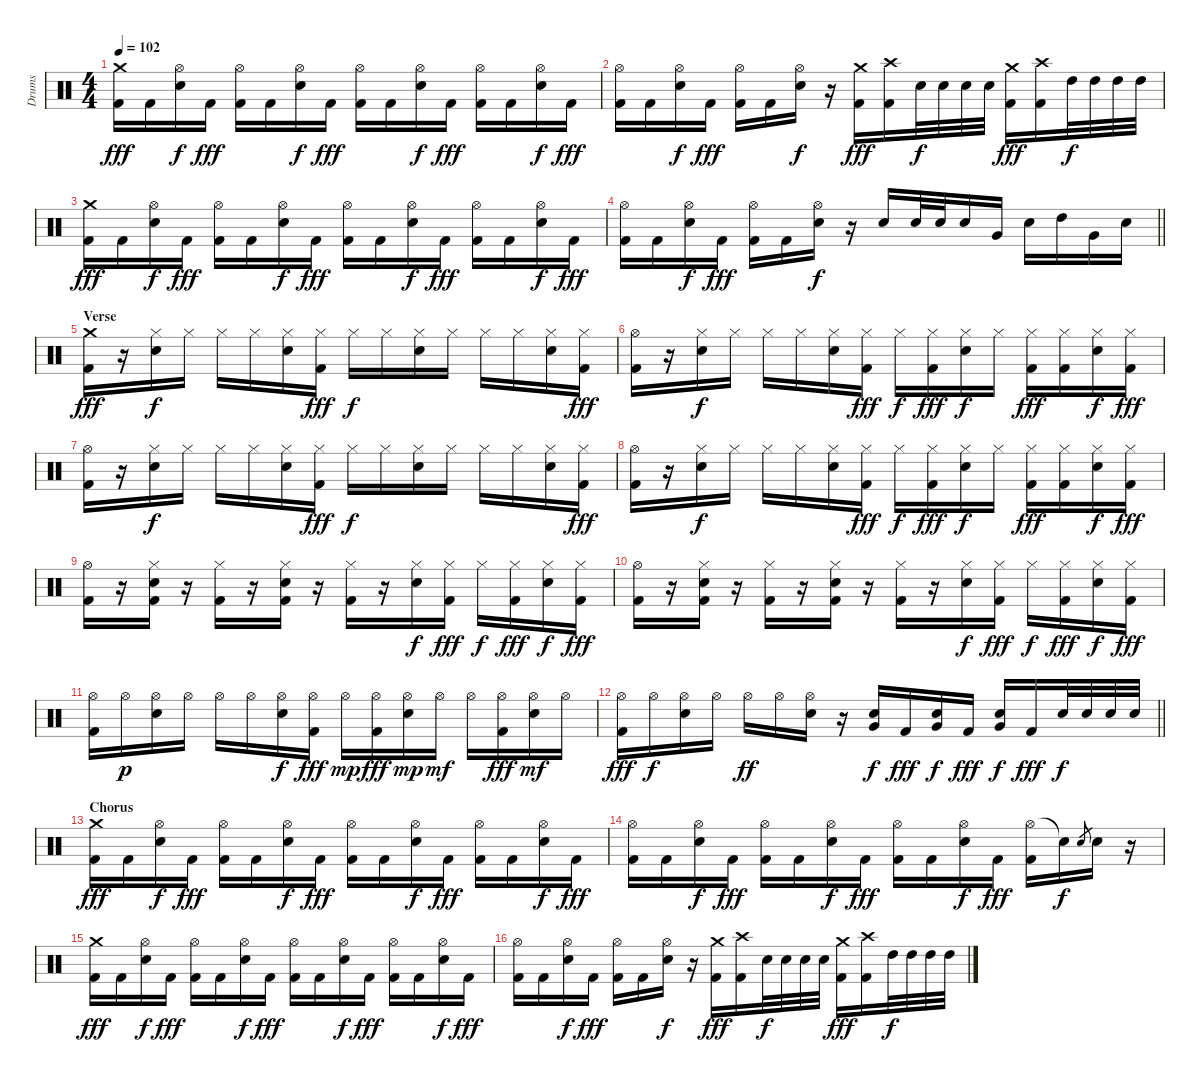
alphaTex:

\track ("Drums" "Drums") {instrument percussion}
\staff {score}
\articulation defaults
\ts (4 4)
\tempo 102
\clef neutral
\ks c
("Crash medium (hit)" "Kick (hit) 2").16{dy fff} "Kick (hit) 2".16 ("Hi-Hat (open)" "Snare (hit) 2").16{dy f} "Kick (hit) 2".16{dy fff} ("Hi-Hat (open)" "Kick (hit) 2").16 "Kick (hit) 2".16 ("Hi-Hat (open)" "Snare (hit) 2").16{dy f} "Kick (hit) 2".16{dy fff} ("Hi-Hat (open)" "Kick (hit) 2").16 "Kick (hit) 2".16 ("Hi-Hat (open)" "Snare (hit) 2").16{dy f} "Kick (hit) 2".16{dy fff} ("Hi-Hat (open)" "Kick (hit) 2").16 "Kick (hit) 2".16 ("Hi-Hat (open)" "Snare (hit) 2").16{dy f} "Kick (hit) 2".16{dy fff} |
("Hi-Hat (open)" "Kick (hit) 2").16 "Kick (hit) 2".16 ("Hi-Hat (open)" "Snare (hit) 2").16{dy f} "Kick (hit) 2".16{dy fff} ("Hi-Hat (open)" "Kick (hit) 2").16 "Kick (hit) 2".16 ("Hi-Hat (open)" "Snare (hit) 2").16{dy f} r.16 ("Crash medium (hit)" "Kick (hit) 2").16{dy fff} ("Crash high (hit)" "Kick (hit) 2").16 "Snare (hit) 2".32{dy f} "Snare (hit) 2".32 "Snare (hit) 2".32 "Snare (hit) 2".32 ("Crash medium (hit)" "Kick (hit) 2").16{dy fff} ("Crash high (hit)" "Kick (hit) 2").16 "High Tom (hit)".32{dy f} "High Tom (hit)".32 "High Tom (hit)".32 "High Tom (hit)".32 |
("Crash medium (hit)" "Kick (hit) 2").16{dy fff} "Kick (hit) 2".16 ("Hi-Hat (open)" "Snare (hit) 2").16{dy f} "Kick (hit) 2".16{dy fff} ("Hi-Hat (open)" "Kick (hit) 2").16 "Kick (hit) 2".16 ("Hi-Hat (open)" "Snare (hit) 2").16{dy f} "Kick (hit) 2".16{dy fff} ("Hi-Hat (open)" "Kick (hit) 2").16 "Kick (hit) 2".16 ("Hi-Hat (open)" "Snare (hit) 2").16{dy f} "Kick (hit) 2".16{dy fff} ("Hi-Hat (open)" "Kick (hit) 2").16 "Kick (hit) 2".16 ("Hi-Hat (open)" "Snare (hit) 2").16{dy f} "Kick (hit) 2".16{dy fff} |
\barLineRight lightlight
("Hi-Hat (open)" "Kick (hit) 2").16 "Kick (hit) 2".16 ("Hi-Hat (open)" "Snare (hit) 2").16{dy f} "Kick (hit) 2".16{dy fff} ("Hi-Hat (open)" "Kick (hit) 2").16 "Kick (hit) 2".16 ("Hi-Hat (open)" "Snare (hit) 2").16{dy f} r.16 "Snare (hit) 2".16 "Snare (hit) 2".32 "Snare (hit) 2".32 "Snare (hit) 2".16 "Very Low Tom (hit)".16 "Snare (hit) 2".16 "High Tom (hit)".16 "Very Low Tom (hit)".16 "Snare (hit) 2".16 |
\section ("" "Verse")
("Crash medium (hit)" "Kick (hit) 2").16{dy fff} r.16 ("Hi-Hat (closed)" "Snare (hit) 2").16{dy f} "Hi-Hat (closed)".16 "Hi-Hat (closed)".16 "Hi-Hat (closed)".16 ("Hi-Hat (closed)" "Snare (hit) 2").16 ("Hi-Hat (closed)" "Kick (hit) 2").16{dy fff} "Hi-Hat (closed)".16{dy f} "Hi-Hat (closed)".16 ("Hi-Hat (closed)" "Snare (hit) 2").16 "Hi-Hat (closed)".16 "Hi-Hat (closed)".16 "Hi-Hat (closed)".16 ("Hi-Hat (closed)" "Snare (hit) 2").16 ("Hi-Hat (closed)" "Kick (hit) 2").16{dy fff} |
("Hi-Hat (open)" "Kick (hit) 2").16 r.16 ("Hi-Hat (closed)" "Snare (hit) 2").16{dy f} "Hi-Hat (closed)".16 "Hi-Hat (closed)".16 "Hi-Hat (closed)".16 ("Hi-Hat (closed)" "Snare (hit) 2").16 ("Hi-Hat (closed)" "Kick (hit) 2").16{dy fff} "Hi-Hat (closed)".16{dy f} ("Hi-Hat (closed)" "Kick (hit) 2").16{dy fff} ("Hi-Hat (closed)" "Snare (hit) 2").16{dy f} "Hi-Hat (closed)".16 ("Hi-Hat (closed)" "Kick (hit) 2").16{dy fff} ("Hi-Hat (closed)" "Kick (hit) 2").16 ("Hi-Hat (closed)" "Snare (hit) 2").16{dy f} ("Hi-Hat (closed)" "Kick (hit) 2").16{dy fff} |
("Hi-Hat (open)" "Kick (hit) 2").16 r.16 ("Hi-Hat (closed)" "Snare (hit) 2").16{dy f} "Hi-Hat (closed)".16 "Hi-Hat (closed)".16 "Hi-Hat (closed)".16 ("Hi-Hat (closed)" "Snare (hit) 2").16 ("Hi-Hat (closed)" "Kick (hit) 2").16{dy fff} "Hi-Hat (closed)".16{dy f} "Hi-Hat (closed)".16 ("Hi-Hat (closed)" "Snare (hit) 2").16 "Hi-Hat (closed)".16 "Hi-Hat (closed)".16 "Hi-Hat (closed)".16 ("Hi-Hat (closed)" "Snare (hit) 2").16 ("Hi-Hat (closed)" "Kick (hit) 2").16{dy fff} |
("Hi-Hat (open)" "Kick (hit) 2").16 r.16 ("Hi-Hat (closed)" "Snare (hit) 2").16{dy f} "Hi-Hat (closed)".16 "Hi-Hat (closed)".16 "Hi-Hat (closed)".16 ("Hi-Hat (closed)" "Snare (hit) 2").16 ("Hi-Hat (closed)" "Kick (hit) 2").16{dy fff} "Hi-Hat (closed)".16{dy f} ("Hi-Hat (closed)" "Kick (hit) 2").16{dy fff} ("Hi-Hat (closed)" "Snare (hit) 2").16{dy f} "Hi-Hat (closed)".16 ("Hi-Hat (closed)" "Kick (hit) 2").16{dy fff} ("Hi-Hat (closed)" "Kick (hit) 2").16 ("Hi-Hat (closed)" "Snare (hit) 2").16{dy f} ("Hi-Hat (closed)" "Kick (hit) 2").16{dy fff} |
("Hi-Hat (open)" "Kick (hit) 2").16 r.16 ("Hi-Hat (closed)" "Snare (hit) 2" "Kick (hit) 2").16 r.16 ("Hi-Hat (closed)" "Kick (hit) 2").16 r.16 ("Hi-Hat (closed)" "Snare (hit) 2" "Kick (hit) 2").16 r.16 ("Hi-Hat (closed)" "Kick (hit) 2").16 r.16 ("Hi-Hat (closed)" "Snare (hit) 2").16{dy f} ("Hi-Hat (closed)" "Kick (hit) 2").16{dy fff} "Hi-Hat (closed)".16{dy f} ("Hi-Hat (closed)" "Kick (hit) 2").16{dy fff} ("Hi-Hat (closed)" "Snare (hit) 2").16{dy f} ("Hi-Hat (closed)" "Kick (hit) 2").16{dy fff} |
("Hi-Hat (open)" "Kick (hit) 2").16 r.16 ("Hi-Hat (closed)" "Snare (hit) 2" "Kick (hit) 2").16 r.16 ("Hi-Hat (closed)" "Kick (hit) 2").16 r.16 ("Hi-Hat (closed)" "Snare (hit) 2" "Kick (hit) 2").16 r.16 ("Hi-Hat (closed)" "Kick (hit) 2").16 r.16 ("Hi-Hat (closed)" "Snare (hit) 2").16{dy f} ("Hi-Hat (closed)" "Kick (hit) 2").16{dy fff} "Hi-Hat (closed)".16{dy f} ("Hi-Hat (closed)" "Kick (hit) 2").16{dy fff} ("Hi-Hat (closed)" "Snare (hit) 2").16{dy f} ("Hi-Hat (closed)" "Kick (hit) 2").16{dy fff} |
("Hi-Hat (open)" "Kick (hit) 2").16 "Hi-Hat (open)".16{dy p} ("Hi-Hat (open)" "Snare (hit) 2").16 "Hi-Hat (open)".16 "Hi-Hat (open)".16 "Hi-Hat (open)".16 ("Hi-Hat (open)" "Snare (hit) 2").16{dy f} ("Hi-Hat (open)" "Kick (hit) 2").16{dy fff} "Hi-Hat (open)".16{dy mp} ("Hi-Hat (open)" "Kick (hit) 2").16{dy fff} ("Hi-Hat (open)" "Snare (hit) 2").16{dy mp} "Hi-Hat (open)".16{dy mf} "Hi-Hat (open)".16 ("Hi-Hat (open)" "Kick (hit) 2").16{dy fff} ("Hi-Hat (open)" "Snare (hit) 2").16{dy mf} "Hi-Hat (open)".16 |
\barLineRight lightlight
("Hi-Hat (open)" "Kick (hit) 2").16{dy fff} "Hi-Hat (open)".16{dy f} ("Hi-Hat (open)" "Snare (hit) 2").16 "Hi-Hat (open)".16 "Hi-Hat (open)".16{dy ff} "Hi-Hat (open)".16 ("Hi-Hat (open)" "Snare (hit) 2").16 r.16 ("Snare (hit) 2" "Very Low Tom (hit)").16{dy f} "Kick (hit) 2".16{dy fff} ("Snare (hit) 2" "Very Low Tom (hit)").16{dy f} "Kick (hit) 2".16{dy fff} ("Snare (hit) 2" "Very Low Tom (hit)").16{dy f} "Kick (hit) 2".16{dy fff} "Snare (hit) 2".32{dy f} "Snare (hit) 2".32 "Snare (hit) 2".32 "Snare (hit) 2".32 |
\section ("" "Chorus")
("Crash medium (hit)" "Kick (hit) 2").16{dy fff} "Kick (hit) 2".16 ("Hi-Hat (open)" "Snare (hit) 2").16{dy f} "Kick (hit) 2".16{dy fff} ("Hi-Hat (open)" "Kick (hit) 2").16 "Kick (hit) 2".16 ("Hi-Hat (open)" "Snare (hit) 2").16{dy f} "Kick (hit) 2".16{dy fff} ("Hi-Hat (open)" "Kick (hit) 2").16 "Kick (hit) 2".16 ("Hi-Hat (open)" "Snare (hit) 2").16{dy f} "Kick (hit) 2".16{dy fff} ("Hi-Hat (open)" "Kick (hit) 2").16 "Kick (hit) 2".16 ("Hi-Hat (open)" "Snare (hit) 2").16{dy f} "Kick (hit) 2".16{dy fff} |
("Hi-Hat (open)" "Kick (hit) 2").16 "Kick (hit) 2".16 ("Hi-Hat (open)" "Snare (hit) 2").16{dy f} "Kick (hit) 2".16{dy fff} ("Hi-Hat (open)" "Kick (hit) 2").16 "Kick (hit) 2".16 ("Hi-Hat (open)" "Snare (hit) 2").16{dy f} "Kick (hit) 2".16{dy fff} ("Hi-Hat (open)" "Kick (hit) 2").16 "Kick (hit) 2".16 ("Hi-Hat (open)" "Snare (hit) 2").16{dy f} "Kick (hit) 2".16{dy fff} ("Hi-Hat (open)" "Kick (hit) 2").16 "Snare (hit)"{t}.16{dy f} "Snare (hit) 2".8{gr} "Snare (hit) 2".16 r.16 |
("Crash medium (hit)" "Kick (hit) 2").16{dy fff} "Kick (hit) 2".16 ("Hi-Hat (open)" "Snare (hit) 2").16{dy f} "Kick (hit) 2".16{dy fff} ("Hi-Hat (open)" "Kick (hit) 2").16 "Kick (hit) 2".16 ("Hi-Hat (open)" "Snare (hit) 2").16{dy f} "Kick (hit) 2".16{dy fff} ("Hi-Hat (open)" "Kick (hit) 2").16 "Kick (hit) 2".16 ("Hi-Hat (open)" "Snare (hit) 2").16{dy f} "Kick (hit) 2".16{dy fff} ("Hi-Hat (open)" "Kick (hit) 2").16 "Kick (hit) 2".16 ("Hi-Hat (open)" "Snare (hit) 2").16{dy f} "Kick (hit) 2".16{dy fff} |
("Hi-Hat (open)" "Kick (hit) 2").16 "Kick (hit) 2".16 ("Hi-Hat (open)" "Snare (hit) 2").16{dy f} "Kick (hit) 2".16{dy fff} ("Hi-Hat (open)" "Kick (hit) 2").16 "Kick (hit) 2".16 ("Hi-Hat (open)" "Snare (hit) 2").16{dy f} r.16 ("Crash medium (hit)" "Kick (hit) 2").16{dy fff} ("Crash high (hit)" "Kick (hit) 2").16 "Snare (hit) 2".32{dy f} "Snare (hit) 2".32 "Snare (hit) 2".32 "Snare (hit) 2".32 ("Crash medium (hit)" "Kick (hit) 2").16{dy fff} ("Crash high (hit)" "Kick (hit) 2").16 "High Tom (hit)".32{dy f} "High Tom (hit)".32 "High Tom (hit)".32 "High Tom (hit)".32
